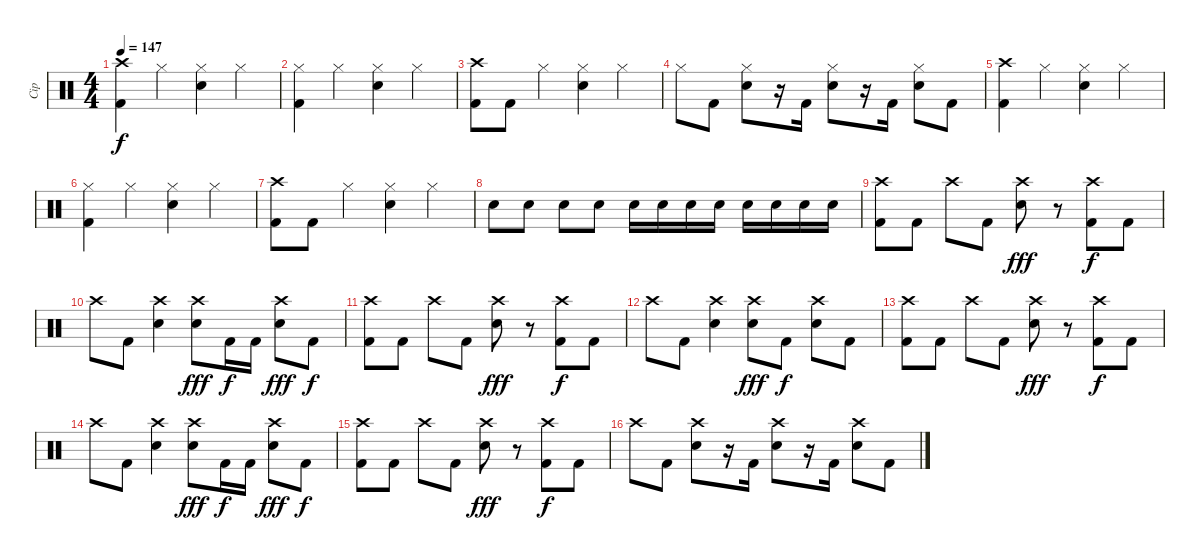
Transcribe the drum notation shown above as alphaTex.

\track ("Cip" "Cip") {instrument percussion}
\staff {score}
\articulation defaults
\ts (4 4)
\tempo 147
\clef neutral
\ks c
("Crash high (hit)" "Kick (hit) 2").4{dy f} "Hi-Hat (closed)".4 ("Hi-Hat (closed)" "Electric Snare (hit)").4 "Hi-Hat (closed)".4 |
("Hi-Hat (closed)" "Kick (hit) 2").4 "Hi-Hat (closed)".4 ("Hi-Hat (closed)" "Electric Snare (hit)").4 "Hi-Hat (closed)".4 |
("Crash high (hit)" "Kick (hit) 2").8 "Kick (hit) 2".8 "Hi-Hat (closed)".4 ("Hi-Hat (closed)" "Electric Snare (hit)").4 "Hi-Hat (closed)".4 |
"Hi-Hat (closed)".8 "Kick (hit) 2".8 ("Hi-Hat (closed)" "Electric Snare (hit)").8 r.16 "Kick (hit) 2".16 ("Hi-Hat (closed)" "Electric Snare (hit)").8 r.16 "Kick (hit) 2".16 ("Hi-Hat (closed)" "Electric Snare (hit)").8 "Kick (hit) 2".8 |
("Crash high (hit)" "Kick (hit) 2").4 "Hi-Hat (closed)".4 ("Hi-Hat (closed)" "Electric Snare (hit)").4 "Hi-Hat (closed)".4 |
("Hi-Hat (closed)" "Kick (hit) 2").4 "Hi-Hat (closed)".4 ("Hi-Hat (closed)" "Electric Snare (hit)").4 "Hi-Hat (closed)".4 |
("Crash high (hit)" "Kick (hit) 2").8 "Kick (hit) 2".8 "Hi-Hat (closed)".4 ("Hi-Hat (closed)" "Electric Snare (hit)").4 "Hi-Hat (closed)".4 |
"Electric Snare (hit)".8 "Electric Snare (hit)".8 "Electric Snare (hit)".8 "Electric Snare (hit)".8 "Electric Snare (hit)".16 "Electric Snare (hit)".16 "Electric Snare (hit)".16 "Electric Snare (hit)".16 "Electric Snare (hit)".16 "Electric Snare (hit)".16 "Electric Snare (hit)".16 "Electric Snare (hit)".16 |
("Crash high (hit)" "Kick (hit) 2").8 "Kick (hit) 2".8 "Crash high (hit)".8 "Kick (hit) 2".8 ("Crash high (hit)" "Electric Snare (hit)").8{dy fff} r.8 ("Crash high (hit)" "Kick (hit) 2").8{dy f} "Kick (hit) 2".8 |
"Crash high (hit)".8 "Kick (hit) 2".8 ("Crash high (hit)" "Electric Snare (hit)").4 ("Crash high (hit)" "Electric Snare (hit)").8{dy fff} "Kick (hit) 2".16{dy f} "Kick (hit) 2".16 ("Crash high (hit)" "Electric Snare (hit)").8{dy fff} "Kick (hit) 2".8{dy f} |
("Crash high (hit)" "Kick (hit) 2").8 "Kick (hit) 2".8 "Crash high (hit)".8 "Kick (hit) 2".8 ("Crash high (hit)" "Electric Snare (hit)").8{dy fff} r.8 ("Crash high (hit)" "Kick (hit) 2").8{dy f} "Kick (hit) 2".8 |
"Crash high (hit)".8 "Kick (hit) 2".8 ("Crash high (hit)" "Electric Snare (hit)").4 ("Crash high (hit)" "Electric Snare (hit)").8{dy fff} "Kick (hit) 2".8{dy f} ("Crash high (hit)" "Electric Snare (hit)").8 "Kick (hit) 2".8 |
("Crash high (hit)" "Kick (hit) 2").8 "Kick (hit) 2".8 "Crash high (hit)".8 "Kick (hit) 2".8 ("Crash high (hit)" "Electric Snare (hit)").8{dy fff} r.8 ("Crash high (hit)" "Kick (hit) 2").8{dy f} "Kick (hit) 2".8 |
"Crash high (hit)".8 "Kick (hit) 2".8 ("Crash high (hit)" "Electric Snare (hit)").4 ("Crash high (hit)" "Electric Snare (hit)").8{dy fff} "Kick (hit) 2".16{dy f} "Kick (hit) 2".16 ("Crash high (hit)" "Electric Snare (hit)").8{dy fff} "Kick (hit) 2".8{dy f} |
("Crash high (hit)" "Kick (hit) 2").8 "Kick (hit) 2".8 "Crash high (hit)".8 "Kick (hit) 2".8 ("Crash high (hit)" "Electric Snare (hit)").8{dy fff} r.8 ("Crash high (hit)" "Kick (hit) 2").8{dy f} "Kick (hit) 2".8 |
"Crash high (hit)".8 "Kick (hit) 2".8 ("Crash high (hit)" "Electric Snare (hit)").8 r.16 "Kick (hit) 2".16 ("Crash high (hit)" "Electric Snare (hit)").8 r.16 "Kick (hit) 2".16 ("Crash high (hit)" "Electric Snare (hit)").8 "Kick (hit) 2".8
